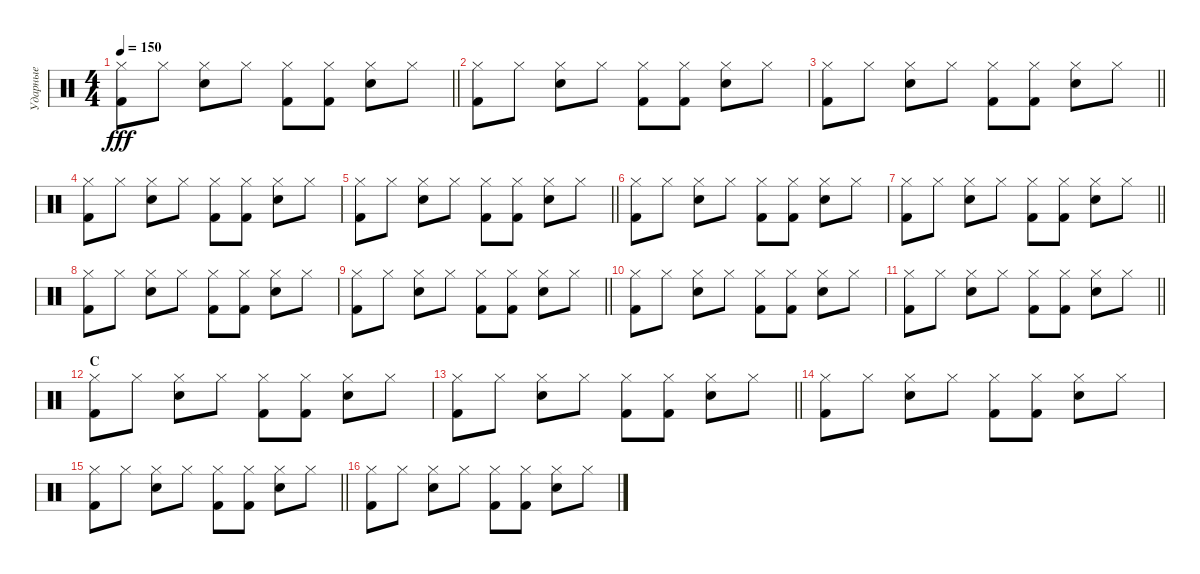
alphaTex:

\track ("Ударные" "Ударные") {instrument percussion}
\staff {score}
\articulation defaults
\ts (4 4)
\tempo 150
\clef neutral
\barLineRight lightlight
\ks c
("Kick (hit) 2" "Hi-Hat (closed)").8{dy fff} "Hi-Hat (closed)".8 ("Hi-Hat (closed)" "Electric Snare (hit)").8 "Hi-Hat (closed)".8 ("Kick (hit) 2" "Hi-Hat (closed)").8 ("Kick (hit) 2" "Hi-Hat (closed)").8 ("Hi-Hat (closed)" "Electric Snare (hit)").8 "Hi-Hat (closed)".8 |
("Kick (hit) 2" "Hi-Hat (closed)").8 "Hi-Hat (closed)".8 ("Hi-Hat (closed)" "Electric Snare (hit)").8 "Hi-Hat (closed)".8 ("Kick (hit) 2" "Hi-Hat (closed)").8 ("Kick (hit) 2" "Hi-Hat (closed)").8 ("Hi-Hat (closed)" "Electric Snare (hit)").8 "Hi-Hat (closed)".8 |
\barLineRight lightlight
("Kick (hit) 2" "Hi-Hat (closed)").8 "Hi-Hat (closed)".8 ("Hi-Hat (closed)" "Electric Snare (hit)").8 "Hi-Hat (closed)".8 ("Kick (hit) 2" "Hi-Hat (closed)").8 ("Kick (hit) 2" "Hi-Hat (closed)").8 ("Hi-Hat (closed)" "Electric Snare (hit)").8 "Hi-Hat (closed)".8 |
("Kick (hit) 2" "Hi-Hat (closed)").8 "Hi-Hat (closed)".8 ("Hi-Hat (closed)" "Electric Snare (hit)").8 "Hi-Hat (closed)".8 ("Kick (hit) 2" "Hi-Hat (closed)").8 ("Kick (hit) 2" "Hi-Hat (closed)").8 ("Hi-Hat (closed)" "Electric Snare (hit)").8 "Hi-Hat (closed)".8 |
\barLineRight lightlight
("Kick (hit) 2" "Hi-Hat (closed)").8 "Hi-Hat (closed)".8 ("Hi-Hat (closed)" "Electric Snare (hit)").8 "Hi-Hat (closed)".8 ("Kick (hit) 2" "Hi-Hat (closed)").8 ("Kick (hit) 2" "Hi-Hat (closed)").8 ("Hi-Hat (closed)" "Electric Snare (hit)").8 "Hi-Hat (closed)".8 |
("Kick (hit) 2" "Hi-Hat (closed)").8 "Hi-Hat (closed)".8 ("Hi-Hat (closed)" "Electric Snare (hit)").8 "Hi-Hat (closed)".8 ("Kick (hit) 2" "Hi-Hat (closed)").8 ("Kick (hit) 2" "Hi-Hat (closed)").8 ("Hi-Hat (closed)" "Electric Snare (hit)").8 "Hi-Hat (closed)".8 |
\barLineRight lightlight
("Kick (hit) 2" "Hi-Hat (closed)").8 "Hi-Hat (closed)".8 ("Hi-Hat (closed)" "Electric Snare (hit)").8 "Hi-Hat (closed)".8 ("Kick (hit) 2" "Hi-Hat (closed)").8 ("Kick (hit) 2" "Hi-Hat (closed)").8 ("Hi-Hat (closed)" "Electric Snare (hit)").8 "Hi-Hat (closed)".8 |
("Kick (hit) 2" "Hi-Hat (closed)").8 "Hi-Hat (closed)".8 ("Hi-Hat (closed)" "Electric Snare (hit)").8 "Hi-Hat (closed)".8 ("Kick (hit) 2" "Hi-Hat (closed)").8 ("Kick (hit) 2" "Hi-Hat (closed)").8 ("Hi-Hat (closed)" "Electric Snare (hit)").8 "Hi-Hat (closed)".8 |
\barLineRight lightlight
("Kick (hit) 2" "Hi-Hat (closed)").8 "Hi-Hat (closed)".8 ("Hi-Hat (closed)" "Electric Snare (hit)").8 "Hi-Hat (closed)".8 ("Kick (hit) 2" "Hi-Hat (closed)").8 ("Kick (hit) 2" "Hi-Hat (closed)").8 ("Hi-Hat (closed)" "Electric Snare (hit)").8 "Hi-Hat (closed)".8 |
("Kick (hit) 2" "Hi-Hat (closed)").8 "Hi-Hat (closed)".8 ("Hi-Hat (closed)" "Electric Snare (hit)").8 "Hi-Hat (closed)".8 ("Kick (hit) 2" "Hi-Hat (closed)").8 ("Kick (hit) 2" "Hi-Hat (closed)").8 ("Hi-Hat (closed)" "Electric Snare (hit)").8 "Hi-Hat (closed)".8 |
\barLineRight lightlight
("Kick (hit) 2" "Hi-Hat (closed)").8 "Hi-Hat (closed)".8 ("Hi-Hat (closed)" "Electric Snare (hit)").8 "Hi-Hat (closed)".8 ("Kick (hit) 2" "Hi-Hat (closed)").8 ("Kick (hit) 2" "Hi-Hat (closed)").8 ("Hi-Hat (closed)" "Electric Snare (hit)").8 "Hi-Hat (closed)".8 |
\section ("" "С")
("Kick (hit) 2" "Hi-Hat (closed)").8 "Hi-Hat (closed)".8 ("Hi-Hat (closed)" "Electric Snare (hit)").8 "Hi-Hat (closed)".8 ("Kick (hit) 2" "Hi-Hat (closed)").8 ("Kick (hit) 2" "Hi-Hat (closed)").8 ("Hi-Hat (closed)" "Electric Snare (hit)").8 "Hi-Hat (closed)".8 |
\barLineRight lightlight
("Kick (hit) 2" "Hi-Hat (closed)").8 "Hi-Hat (closed)".8 ("Hi-Hat (closed)" "Electric Snare (hit)").8 "Hi-Hat (closed)".8 ("Kick (hit) 2" "Hi-Hat (closed)").8 ("Kick (hit) 2" "Hi-Hat (closed)").8 ("Hi-Hat (closed)" "Electric Snare (hit)").8 "Hi-Hat (closed)".8 |
("Kick (hit) 2" "Hi-Hat (closed)").8 "Hi-Hat (closed)".8 ("Hi-Hat (closed)" "Electric Snare (hit)").8 "Hi-Hat (closed)".8 ("Kick (hit) 2" "Hi-Hat (closed)").8 ("Kick (hit) 2" "Hi-Hat (closed)").8 ("Hi-Hat (closed)" "Electric Snare (hit)").8 "Hi-Hat (closed)".8 |
\barLineRight lightlight
("Kick (hit) 2" "Hi-Hat (closed)").8 "Hi-Hat (closed)".8 ("Hi-Hat (closed)" "Electric Snare (hit)").8 "Hi-Hat (closed)".8 ("Kick (hit) 2" "Hi-Hat (closed)").8 ("Kick (hit) 2" "Hi-Hat (closed)").8 ("Hi-Hat (closed)" "Electric Snare (hit)").8 "Hi-Hat (closed)".8 |
("Kick (hit) 2" "Hi-Hat (closed)").8 "Hi-Hat (closed)".8 ("Hi-Hat (closed)" "Electric Snare (hit)").8 "Hi-Hat (closed)".8 ("Kick (hit) 2" "Hi-Hat (closed)").8 ("Kick (hit) 2" "Hi-Hat (closed)").8 ("Hi-Hat (closed)" "Electric Snare (hit)").8 "Hi-Hat (closed)".8
